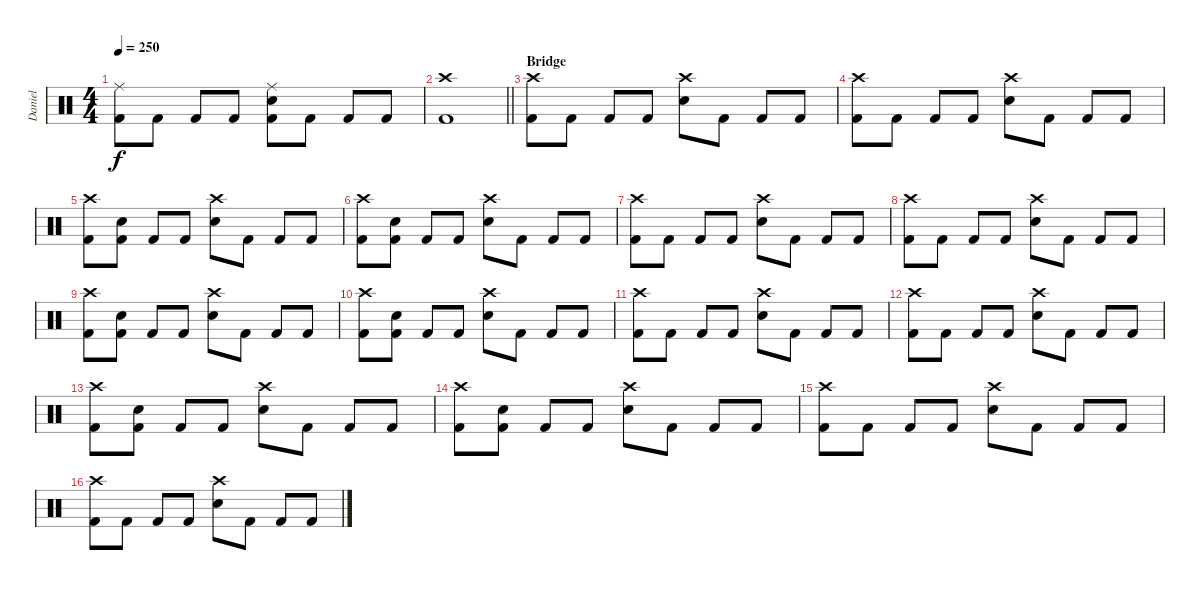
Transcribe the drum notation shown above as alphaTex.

\track ("Daniel" "Daniel") {instrument percussion}
\staff {score}
\articulation defaults
\ts (4 4)
\tempo 250
\clef neutral
\ks c
("Ride (middle)" "Kick (hit) 2").8{dy f} "Kick (hit) 2".8 "Kick (hit) 2".8 "Kick (hit) 2".8 ("Ride (middle)" "Snare (hit) 2" "Kick (hit) 2").8 "Kick (hit) 2".8 "Kick (hit) 2".8 "Kick (hit) 2".8 |
\barLineRight lightlight
("Crash high (hit)" "Kick (hit) 2").1 |
\section ("" "Bridge")
("Crash high (hit)" "Kick (hit) 2").8 "Kick (hit) 2".8 "Kick (hit) 2".8 "Kick (hit) 2".8 ("Crash high (hit)" "Snare (hit) 2").8 "Kick (hit) 2".8 "Kick (hit) 2".8 "Kick (hit) 2".8 |
("Crash high (hit)" "Kick (hit) 2").8 "Kick (hit) 2".8 "Kick (hit) 2".8 "Kick (hit) 2".8 ("Crash high (hit)" "Snare (hit) 2").8 "Kick (hit) 2".8 "Kick (hit) 2".8 "Kick (hit) 2".8 |
("Crash high (hit)" "Kick (hit) 2").8 ("Snare (hit) 2" "Kick (hit) 2").8 "Kick (hit) 2".8 "Kick (hit) 2".8 ("Crash high (hit)" "Snare (hit) 2").8 "Kick (hit) 2".8 "Kick (hit) 2".8 "Kick (hit) 2".8 |
("Crash high (hit)" "Kick (hit) 2").8 ("Snare (hit) 2" "Kick (hit) 2").8 "Kick (hit) 2".8 "Kick (hit) 2".8 ("Crash high (hit)" "Snare (hit) 2").8 "Kick (hit) 2".8 "Kick (hit) 2".8 "Kick (hit) 2".8 |
("Crash high (hit)" "Kick (hit) 2").8 "Kick (hit) 2".8 "Kick (hit) 2".8 "Kick (hit) 2".8 ("Crash high (hit)" "Snare (hit) 2").8 "Kick (hit) 2".8 "Kick (hit) 2".8 "Kick (hit) 2".8 |
("Crash high (hit)" "Kick (hit) 2").8 "Kick (hit) 2".8 "Kick (hit) 2".8 "Kick (hit) 2".8 ("Crash high (hit)" "Snare (hit) 2").8 "Kick (hit) 2".8 "Kick (hit) 2".8 "Kick (hit) 2".8 |
("Crash high (hit)" "Kick (hit) 2").8 ("Snare (hit) 2" "Kick (hit) 2").8 "Kick (hit) 2".8 "Kick (hit) 2".8 ("Crash high (hit)" "Snare (hit) 2").8 "Kick (hit) 2".8 "Kick (hit) 2".8 "Kick (hit) 2".8 |
("Crash high (hit)" "Kick (hit) 2").8 ("Snare (hit) 2" "Kick (hit) 2").8 "Kick (hit) 2".8 "Kick (hit) 2".8 ("Crash high (hit)" "Snare (hit) 2").8 "Kick (hit) 2".8 "Kick (hit) 2".8 "Kick (hit) 2".8 |
("Crash high (hit)" "Kick (hit) 2").8 "Kick (hit) 2".8 "Kick (hit) 2".8 "Kick (hit) 2".8 ("Crash high (hit)" "Snare (hit) 2").8 "Kick (hit) 2".8 "Kick (hit) 2".8 "Kick (hit) 2".8 |
("Crash high (hit)" "Kick (hit) 2").8 "Kick (hit) 2".8 "Kick (hit) 2".8 "Kick (hit) 2".8 ("Crash high (hit)" "Snare (hit) 2").8 "Kick (hit) 2".8 "Kick (hit) 2".8 "Kick (hit) 2".8 |
("Crash high (hit)" "Kick (hit) 2").8 ("Snare (hit) 2" "Kick (hit) 2").8 "Kick (hit) 2".8 "Kick (hit) 2".8 ("Crash high (hit)" "Snare (hit) 2").8 "Kick (hit) 2".8 "Kick (hit) 2".8 "Kick (hit) 2".8 |
("Crash high (hit)" "Kick (hit) 2").8 ("Snare (hit) 2" "Kick (hit) 2").8 "Kick (hit) 2".8 "Kick (hit) 2".8 ("Crash high (hit)" "Snare (hit) 2").8 "Kick (hit) 2".8 "Kick (hit) 2".8 "Kick (hit) 2".8 |
("Crash high (hit)" "Kick (hit) 2").8 "Kick (hit) 2".8 "Kick (hit) 2".8 "Kick (hit) 2".8 ("Crash high (hit)" "Snare (hit) 2").8 "Kick (hit) 2".8 "Kick (hit) 2".8 "Kick (hit) 2".8 |
("Crash high (hit)" "Kick (hit) 2").8 "Kick (hit) 2".8 "Kick (hit) 2".8 "Kick (hit) 2".8 ("Crash high (hit)" "Snare (hit) 2").8 "Kick (hit) 2".8 "Kick (hit) 2".8 "Kick (hit) 2".8
